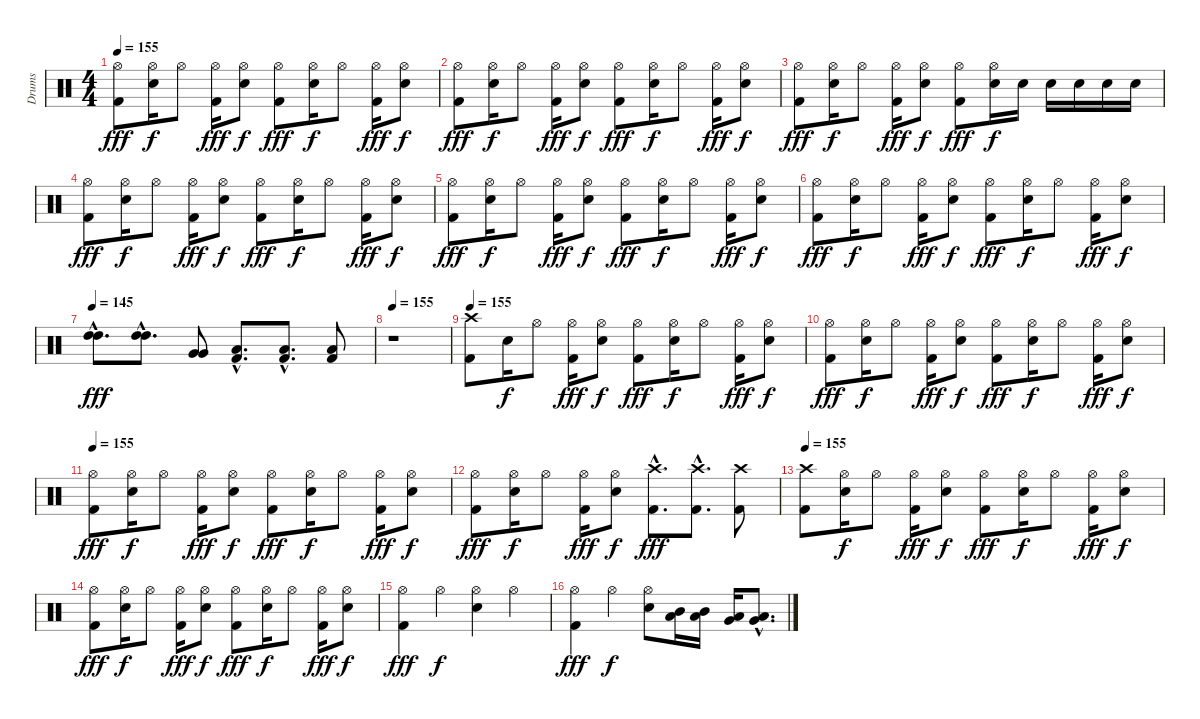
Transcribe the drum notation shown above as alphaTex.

\track ("Drums" "Drums") {instrument percussion}
\staff {score}
\articulation defaults
\ts (4 4)
\tempo 155
\clef neutral
\ks c
("Kick (hit) 2" "Hi-Hat (open)").8{dy fff} ("Electric Snare (hit)" "Hi-Hat (open)").16{dy f} "Hi-Hat (open)".8 ("Kick (hit) 2" "Hi-Hat (open)").16{dy fff} ("Electric Snare (hit)" "Hi-Hat (open)").8{dy f} ("Kick (hit) 2" "Hi-Hat (open)").8{dy fff} ("Electric Snare (hit)" "Hi-Hat (open)").16{dy f} "Hi-Hat (open)".8 ("Kick (hit) 2" "Hi-Hat (open)").16{dy fff} ("Electric Snare (hit)" "Hi-Hat (open)").8{dy f} |
("Kick (hit) 2" "Hi-Hat (open)").8{dy fff} ("Electric Snare (hit)" "Hi-Hat (open)").16{dy f} "Hi-Hat (open)".8 ("Kick (hit) 2" "Hi-Hat (open)").16{dy fff} ("Electric Snare (hit)" "Hi-Hat (open)").8{dy f} ("Kick (hit) 2" "Hi-Hat (open)").8{dy fff} ("Electric Snare (hit)" "Hi-Hat (open)").16{dy f} "Hi-Hat (open)".8 ("Kick (hit) 2" "Hi-Hat (open)").16{dy fff} ("Electric Snare (hit)" "Hi-Hat (open)").8{dy f} |
("Kick (hit) 2" "Hi-Hat (open)").8{dy fff} ("Electric Snare (hit)" "Hi-Hat (open)").16{dy f} "Hi-Hat (open)".8 ("Kick (hit) 2" "Hi-Hat (open)").16{dy fff} ("Electric Snare (hit)" "Hi-Hat (open)").8{dy f} ("Kick (hit) 2" "Hi-Hat (open)").8{dy fff} ("Electric Snare (hit)" "Hi-Hat (open)").16{dy f} "Electric Snare (hit)".16 "Electric Snare (hit)".16 "Electric Snare (hit)".16 "Electric Snare (hit)".16 "Electric Snare (hit)".16 |
("Kick (hit) 2" "Hi-Hat (open)").8{dy fff} ("Electric Snare (hit)" "Hi-Hat (open)").16{dy f} "Hi-Hat (open)".8 ("Kick (hit) 2" "Hi-Hat (open)").16{dy fff} ("Electric Snare (hit)" "Hi-Hat (open)").8{dy f} ("Kick (hit) 2" "Hi-Hat (open)").8{dy fff} ("Electric Snare (hit)" "Hi-Hat (open)").16{dy f} "Hi-Hat (open)".8 ("Kick (hit) 2" "Hi-Hat (open)").16{dy fff} ("Electric Snare (hit)" "Hi-Hat (open)").8{dy f} |
("Kick (hit) 2" "Hi-Hat (open)").8{dy fff} ("Electric Snare (hit)" "Hi-Hat (open)").16{dy f} "Hi-Hat (open)".8 ("Kick (hit) 2" "Hi-Hat (open)").16{dy fff} ("Electric Snare (hit)" "Hi-Hat (open)").8{dy f} ("Kick (hit) 2" "Hi-Hat (open)").8{dy fff} ("Electric Snare (hit)" "Hi-Hat (open)").16{dy f} "Hi-Hat (open)".8 ("Kick (hit) 2" "Hi-Hat (open)").16{dy fff} ("Electric Snare (hit)" "Hi-Hat (open)").8{dy f} |
("Kick (hit) 2" "Hi-Hat (open)").8{dy fff} ("Electric Snare (hit)" "Hi-Hat (open)").16{dy f} "Hi-Hat (open)".8 ("Kick (hit) 2" "Hi-Hat (open)").16{dy fff} ("Electric Snare (hit)" "Hi-Hat (open)").8{dy f} ("Kick (hit) 2" "Hi-Hat (open)").8{dy fff} ("Electric Snare (hit)" "Hi-Hat (open)").16{dy f} "Hi-Hat (open)".8 ("Kick (hit) 2" "Hi-Hat (open)").16{dy fff} ("Electric Snare (hit)" "Hi-Hat (open)").8{dy f} |
\tempo 145
("High Tom (hit)"{hac} "High Tom (hit)"{hac}).8{d dy fff balance 16} ("High Tom (hit)"{hac} "High Tom (hit)"{hac}).8{d balance 16} ("Very Low Tom (hit)" "Very Low Tom (hit)").8{balance 0} ("Kick (hit) 2"{hac} "Low Tom (hit)"{hac}).8{d balance 7} ("Kick (hit) 2"{hac} "Low Tom (hit)"{hac}).8{d} ("Kick (hit) 2" "Low Tom (hit)").8 |
\tempo 155
r.1 |
\tempo 155
("Kick (hit) 2" "Crash high (hit)").8 "Electric Snare (hit)".16{dy f} "Hi-Hat (open)".8 ("Kick (hit) 2" "Hi-Hat (open)").16{dy fff} ("Electric Snare (hit)" "Hi-Hat (open)").8{dy f} ("Kick (hit) 2" "Hi-Hat (open)").8{dy fff} ("Electric Snare (hit)" "Hi-Hat (open)").16{dy f} "Hi-Hat (open)".8 ("Kick (hit) 2" "Hi-Hat (open)").16{dy fff} ("Electric Snare (hit)" "Hi-Hat (open)").8{dy f} |
("Kick (hit) 2" "Hi-Hat (open)").8{dy fff} ("Electric Snare (hit)" "Hi-Hat (open)").16{dy f} "Hi-Hat (open)".8 ("Kick (hit) 2" "Hi-Hat (open)").16{dy fff} ("Electric Snare (hit)" "Hi-Hat (open)").8{dy f} ("Kick (hit) 2" "Hi-Hat (open)").8{dy fff} ("Electric Snare (hit)" "Hi-Hat (open)").16{dy f} "Hi-Hat (open)".8 ("Kick (hit) 2" "Hi-Hat (open)").16{dy fff} ("Electric Snare (hit)" "Hi-Hat (open)").8{dy f} |
\tempo 155
("Kick (hit) 2" "Hi-Hat (open)").8{dy fff} ("Electric Snare (hit)" "Hi-Hat (open)").16{dy f} "Hi-Hat (open)".8 ("Kick (hit) 2" "Hi-Hat (open)").16{dy fff} ("Electric Snare (hit)" "Hi-Hat (open)").8{dy f} ("Kick (hit) 2" "Hi-Hat (open)").8{dy fff} ("Electric Snare (hit)" "Hi-Hat (open)").16{dy f} "Hi-Hat (open)".8 ("Kick (hit) 2" "Hi-Hat (open)").16{dy fff} ("Electric Snare (hit)" "Hi-Hat (open)").8{dy f} |
("Kick (hit) 2" "Hi-Hat (open)").8{dy fff} ("Electric Snare (hit)" "Hi-Hat (open)").16{dy f} "Hi-Hat (open)".8 ("Kick (hit) 2" "Hi-Hat (open)").16{dy fff} ("Electric Snare (hit)" "Hi-Hat (open)").8{dy f} ("Kick (hit) 2"{hac} "Crash high (hit)"{hac}).8{d dy fff} ("Kick (hit) 2"{hac} "Crash high (hit)"{hac}).8{d} ("Kick (hit) 2" "Crash high (hit)").8 |
\tempo 155
("Kick (hit) 2" "Crash high (hit)").8 ("Electric Snare (hit)" "Hi-Hat (open)").16{dy f} "Hi-Hat (open)".8 ("Kick (hit) 2" "Hi-Hat (open)").16{dy fff} ("Electric Snare (hit)" "Hi-Hat (open)").8{dy f} ("Kick (hit) 2" "Hi-Hat (open)").8{dy fff} ("Electric Snare (hit)" "Hi-Hat (open)").16{dy f} "Hi-Hat (open)".8 ("Kick (hit) 2" "Hi-Hat (open)").16{dy fff} ("Electric Snare (hit)" "Hi-Hat (open)").8{dy f} |
("Kick (hit) 2" "Hi-Hat (open)").8{dy fff} ("Electric Snare (hit)" "Hi-Hat (open)").16{dy f} "Hi-Hat (open)".8 ("Kick (hit) 2" "Hi-Hat (open)").16{dy fff} ("Electric Snare (hit)" "Hi-Hat (open)").8{dy f} ("Kick (hit) 2" "Hi-Hat (open)").8{dy fff} ("Electric Snare (hit)" "Hi-Hat (open)").16{dy f} "Hi-Hat (open)".8 ("Kick (hit) 2" "Hi-Hat (open)").16{dy fff} ("Electric Snare (hit)" "Hi-Hat (open)").8{dy f} |
("Kick (hit) 2" "Hi-Hat (open)").4{dy fff} "Hi-Hat (open)".4{dy f} ("Electric Snare (hit)" "Hi-Hat (open)").4 "Hi-Hat (open)".4 |
("Kick (hit) 2" "Hi-Hat (open)").4{dy fff} "Hi-Hat (open)".4{dy f} ("Electric Snare (hit)" "Hi-Hat (open)").8 ("Low Tom (hit)" "Mid Tom (hit)").16 ("Mid Tom (hit)" "Low Tom (hit)").16 ("Low Tom (hit)" "Very Low Tom (hit)").16 ("Very Low Tom (hit)"{hac} "Low Floor Tom (hit)"{hac}).8{d}
